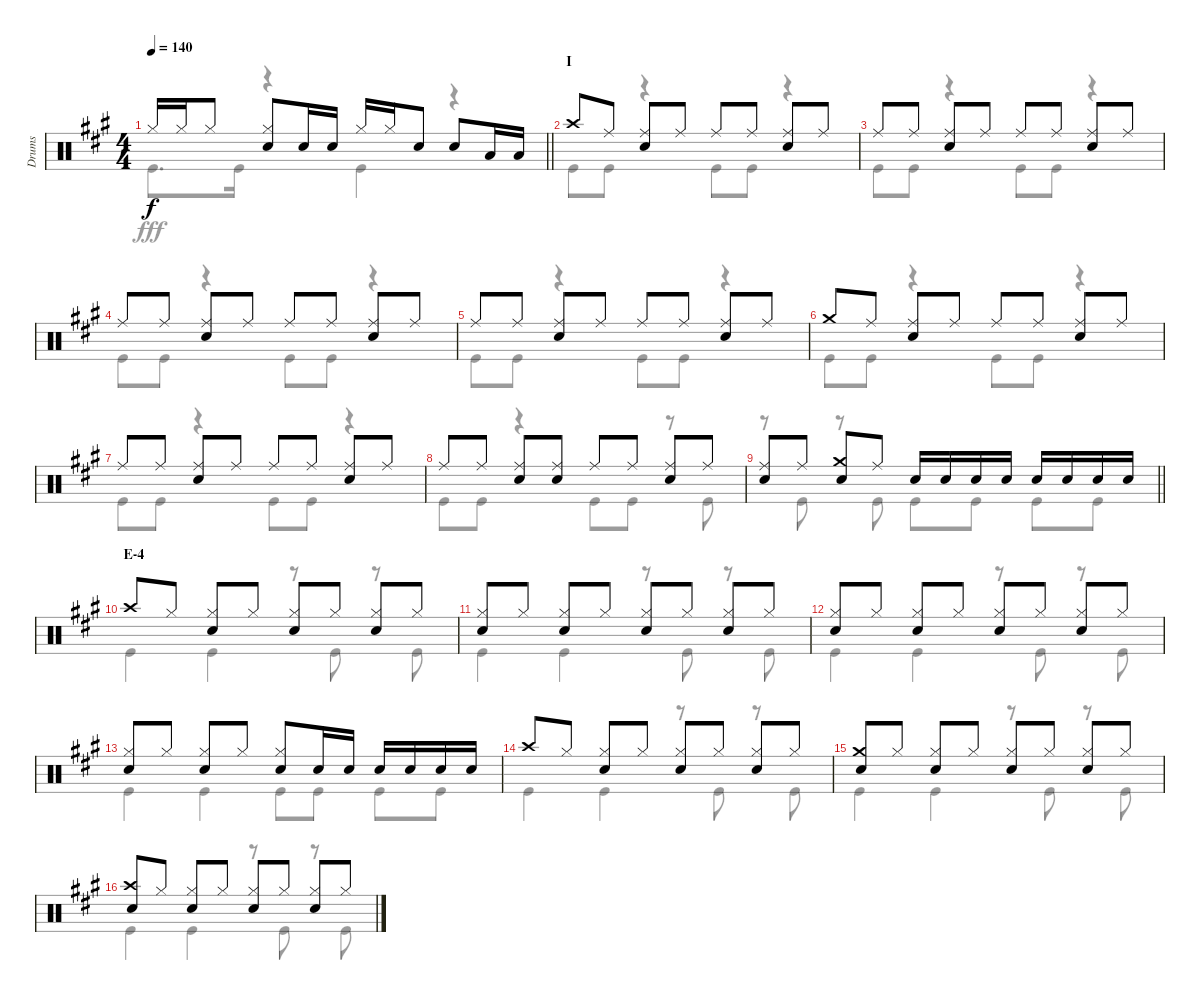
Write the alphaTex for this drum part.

\track ("Drums" "Drums") {instrument percussion}
\staff {score}
\articulation defaults
\voice
\ts (4 4)
\tempo 140
\clef neutral
\barLineRight lightlight
\ks a "Hi-Hat (closed)".16{dy f} "Hi-Hat (closed)".16 "Hi-Hat (closed)".8
("Hi-Hat (closed)" "Snare (hit) 2").8 "Snare (hit) 2".16 "Snare (hit) 2".16 "Hi-Hat (closed)".16 "Hi-Hat (closed)".16 "Snare (hit) 2".8 "Snare (hit) 2".8 "Low Tom (hit)".16 "Low Tom (hit)".16 |
\section ("" "I")
"Crash high (hit)".8 "Ride (middle)".8 ("Ride (middle)" "Snare (hit) 2").8 "Ride (middle)".8 "Ride (middle)".8 "Ride (middle)".8 ("Ride (middle)" "Snare (hit) 2").8 "Ride (middle)".8 |
"Ride (middle)".8 "Ride (middle)".8 ("Ride (middle)" "Snare (hit) 2").8 "Ride (middle)".8 "Ride (middle)".8 "Ride (middle)".8 ("Ride (middle)" "Snare (hit) 2").8 "Ride (middle)".8 |
"Ride (middle)".8 "Ride (middle)".8 ("Ride (middle)" "Snare (hit) 2").8 "Ride (middle)".8 "Ride (middle)".8 "Ride (middle)".8 ("Ride (middle)" "Snare (hit) 2").8 "Ride (middle)".8 |
"Ride (middle)".8 "Ride (middle)".8 ("Ride (middle)" "Snare (hit) 2").8 "Ride (middle)".8 "Ride (middle)".8 "Ride (middle)".8 ("Ride (middle)" "Snare (hit) 2").8 "Ride (middle)".8 |
"Crash medium (hit)".8 "Ride (middle)".8 ("Ride (middle)" "Snare (hit) 2").8 "Ride (middle)".8 "Ride (middle)".8 "Ride (middle)".8 ("Ride (middle)" "Snare (hit) 2").8 "Ride (middle)".8 |
"Ride (middle)".8 "Ride (middle)".8 ("Ride (middle)" "Snare (hit) 2").8 "Ride (middle)".8 "Ride (middle)".8 "Ride (middle)".8 ("Ride (middle)" "Snare (hit) 2").8 "Ride (middle)".8 |
"Ride (middle)".8 "Ride (middle)".8 ("Ride (middle)" "Snare (hit) 2").8 ("Ride (middle)" "Snare (hit) 2").8 "Ride (middle)".8 "Ride (middle)".8 ("Ride (middle)" "Snare (hit) 2").8 "Ride (middle)".8 |
\barLineRight lightlight
("Ride (middle)" "Snare (hit) 2").8 "Ride (middle)".8 ("Crash medium (hit)" "Snare (hit) 2").8 "Ride (middle)".8 "Snare (hit) 2".16 "Snare (hit) 2".16 "Snare (hit) 2".16 "Snare (hit) 2".16 "Snare (hit) 2".16 "Snare (hit) 2".16 "Snare (hit) 2".16 "Snare (hit) 2".16 |
\section ("" "E-4")
"Crash high (hit)".8 "Hi-Hat (closed)".8 ("Hi-Hat (closed)" "Snare (hit) 2").8 "Hi-Hat (closed)".8 ("Hi-Hat (closed)" "Snare (hit) 2").8 "Hi-Hat (closed)".8 ("Hi-Hat (closed)" "Snare (hit) 2").8 "Hi-Hat (closed)".8 |
("Hi-Hat (closed)" "Snare (hit) 2").8 "Hi-Hat (closed)".8 ("Hi-Hat (closed)" "Snare (hit) 2").8 "Hi-Hat (closed)".8 ("Hi-Hat (closed)" "Snare (hit) 2").8 "Hi-Hat (closed)".8 ("Hi-Hat (closed)" "Snare (hit) 2").8 "Hi-Hat (closed)".8 |
("Hi-Hat (closed)" "Snare (hit) 2").8 "Hi-Hat (closed)".8 ("Hi-Hat (closed)" "Snare (hit) 2").8 "Hi-Hat (closed)".8 ("Hi-Hat (closed)" "Snare (hit) 2").8 "Hi-Hat (closed)".8 ("Hi-Hat (closed)" "Snare (hit) 2").8 "Hi-Hat (closed)".8 |
("Hi-Hat (closed)" "Snare (hit) 2").8 "Hi-Hat (closed)".8 ("Hi-Hat (closed)" "Snare (hit) 2").8 "Hi-Hat (closed)".8 ("Hi-Hat (closed)" "Snare (hit) 2").8 "Snare (hit) 2".16 "Snare (hit) 2".16 "Snare (hit) 2".16 "Snare (hit) 2".16 "Snare (hit) 2".16 "Snare (hit) 2".16 |
"Crash high (hit)".8 "Hi-Hat (closed)".8 ("Hi-Hat (closed)" "Snare (hit) 2").8 "Hi-Hat (closed)".8 ("Hi-Hat (closed)" "Snare (hit) 2").8 "Hi-Hat (closed)".8 ("Hi-Hat (closed)" "Snare (hit) 2").8 "Hi-Hat (closed)".8 |
("Crash medium (hit)" "Snare (hit) 2").8 "Hi-Hat (closed)".8 ("Hi-Hat (closed)" "Snare (hit) 2").8 "Hi-Hat (closed)".8 ("Hi-Hat (closed)" "Snare (hit) 2").8 "Hi-Hat (closed)".8 ("Hi-Hat (closed)" "Snare (hit) 2").8 "Hi-Hat (closed)".8 |
("Crash high (hit)" "Snare (hit) 2").8 "Hi-Hat (closed)".8 ("Hi-Hat (closed)" "Snare (hit) 2").8 "Hi-Hat (closed)".8 ("Hi-Hat (closed)" "Snare (hit) 2").8 "Hi-Hat (closed)".8 ("Hi-Hat (closed)" "Snare (hit) 2").8 "Hi-Hat (closed)".8
\voice
\clef neutral
\ottava regular
\simile none
\barLineRight lightlight
\ks a "Kick (hit)".8{d dy fff} "Kick (hit)".16
r.4 "Kick (hit)".4 r.4 |
"Kick (hit)".8 "Kick (hit)".8 r.4 "Kick (hit)".8 "Kick (hit)".8 r.4 |
"Kick (hit)".8 "Kick (hit)".8 r.4 "Kick (hit)".8 "Kick (hit)".8 r.4 |
"Kick (hit)".8 "Kick (hit)".8 r.4 "Kick (hit)".8 "Kick (hit)".8 r.4 |
"Kick (hit)".8 "Kick (hit)".8 r.4 "Kick (hit)".8 "Kick (hit)".8 r.4 |
"Kick (hit)".8 "Kick (hit)".8 r.4 "Kick (hit)".8 "Kick (hit)".8 r.4 |
"Kick (hit)".8 "Kick (hit)".8 r.4 "Kick (hit)".8 "Kick (hit)".8 r.4 |
"Kick (hit)".8 "Kick (hit)".8 r.4 "Kick (hit)".8 "Kick (hit)".8 r.8 "Kick (hit)".8 |
\barLineRight lightlight
r.8 "Kick (hit)".8 r.8 "Kick (hit)".8 "Kick (hit)".8 "Kick (hit)".8 "Kick (hit)".8 "Kick (hit)".8 |
"Kick (hit)".4 "Kick (hit)".4 r.8 "Kick (hit)".8 r.8 "Kick (hit)".8 |
"Kick (hit)".4 "Kick (hit)".4 r.8 "Kick (hit)".8 r.8 "Kick (hit)".8 |
"Kick (hit)".4 "Kick (hit)".4 r.8 "Kick (hit)".8 r.8 "Kick (hit)".8 |
"Kick (hit)".4 "Kick (hit)".4 "Kick (hit)".8 "Kick (hit)".8 "Kick (hit)".8 "Kick (hit)".8 |
"Kick (hit)".4 "Kick (hit)".4 r.8 "Kick (hit)".8 r.8 "Kick (hit)".8 |
"Kick (hit)".4 "Kick (hit)".4 r.8 "Kick (hit)".8 r.8 "Kick (hit)".8 |
"Kick (hit)".4 "Kick (hit)".4 r.8 "Kick (hit)".8 r.8 "Kick (hit)".8
